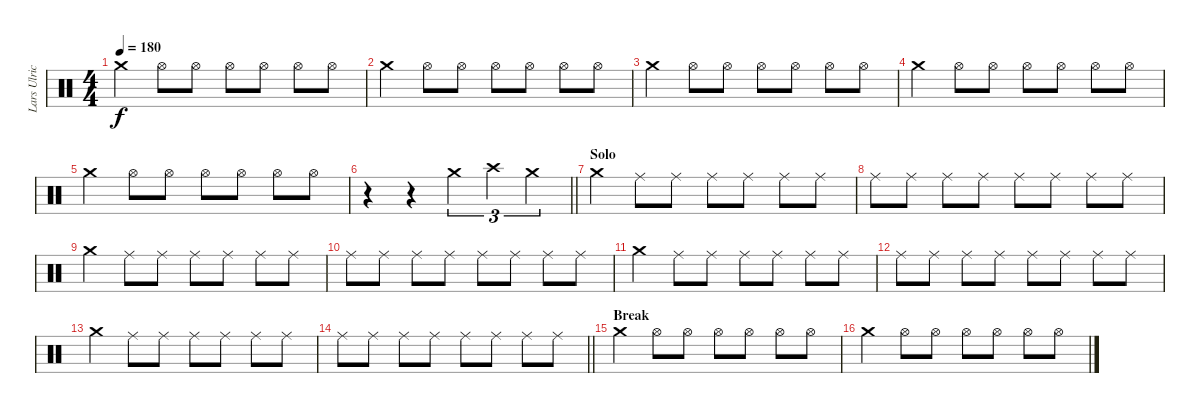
\track ("Lars Ulrich" "Lars Ulric") {instrument percussion}
\staff {score}
\articulation defaults
\ts (4 4)
\tempo 180
\clef neutral
\ks c "Crash medium (hit)".4{dy f} "Hi-Hat (open)".8 "Hi-Hat (open)".8 "Hi-Hat (open)".8 "Hi-Hat (open)".8 "Hi-Hat (open)".8 "Hi-Hat (open)".8
|
"Crash medium (hit)".4 "Hi-Hat (open)".8 "Hi-Hat (open)".8 "Hi-Hat (open)".8 "Hi-Hat (open)".8 "Hi-Hat (open)".8 "Hi-Hat (open)".8 |
"Crash medium (hit)".4 "Hi-Hat (open)".8 "Hi-Hat (open)".8 "Hi-Hat (open)".8 "Hi-Hat (open)".8 "Hi-Hat (open)".8 "Hi-Hat (open)".8 |
"Crash medium (hit)".4 "Hi-Hat (open)".8 "Hi-Hat (open)".8 "Hi-Hat (open)".8 "Hi-Hat (open)".8 "Hi-Hat (open)".8 "Hi-Hat (open)".8 |
"Crash medium (hit)".4 "Hi-Hat (open)".8 "Hi-Hat (open)".8 "Hi-Hat (open)".8 "Hi-Hat (open)".8 "Hi-Hat (open)".8 "Hi-Hat (open)".8 |
\barLineRight lightlight
r.4 r.4 "Crash medium (hit)".4{tu (3 2)} "Crash high (hit)".4{tu (3 2)} "Crash medium (hit)".4{tu (3 2)} |
\section ("" "Solo")
"Crash medium (hit)".4 "Ride (middle)".8 "Ride (middle)".8 "Ride (middle)".8 "Ride (middle)".8 "Ride (middle)".8 "Ride (middle)".8 |
"Ride (middle)".8 "Ride (middle)".8 "Ride (middle)".8 "Ride (middle)".8 "Ride (middle)".8 "Ride (middle)".8 "Ride (middle)".8 "Ride (middle)".8 |
"Crash medium (hit)".4 "Ride (middle)".8 "Ride (middle)".8 "Ride (middle)".8 "Ride (middle)".8 "Ride (middle)".8 "Ride (middle)".8 |
"Ride (middle)".8 "Ride (middle)".8 "Ride (middle)".8 "Ride (middle)".8 "Ride (middle)".8 "Ride (middle)".8 "Ride (middle)".8 "Ride (middle)".8 |
"Crash medium (hit)".4 "Ride (middle)".8 "Ride (middle)".8 "Ride (middle)".8 "Ride (middle)".8 "Ride (middle)".8 "Ride (middle)".8 |
"Ride (middle)".8 "Ride (middle)".8 "Ride (middle)".8 "Ride (middle)".8 "Ride (middle)".8 "Ride (middle)".8 "Ride (middle)".8 "Ride (middle)".8 |
"Crash medium (hit)".4 "Ride (middle)".8 "Ride (middle)".8 "Ride (middle)".8 "Ride (middle)".8 "Ride (middle)".8 "Ride (middle)".8 |
\barLineRight lightlight "Ride (middle)".8 "Ride (middle)".8 "Ride (middle)".8 "Ride (middle)".8 "Ride (middle)".8 "Ride (middle)".8 "Ride (middle)".8 "Ride (middle)".8
|
\section ("" "Break")
"Crash medium (hit)".4 "Hi-Hat (open)".8 "Hi-Hat (open)".8 "Hi-Hat (open)".8 "Hi-Hat (open)".8 "Hi-Hat (open)".8 "Hi-Hat (open)".8 |
"Crash medium (hit)".4 "Hi-Hat (open)".8 "Hi-Hat (open)".8 "Hi-Hat (open)".8 "Hi-Hat (open)".8 "Hi-Hat (open)".8 "Hi-Hat (open)".8
